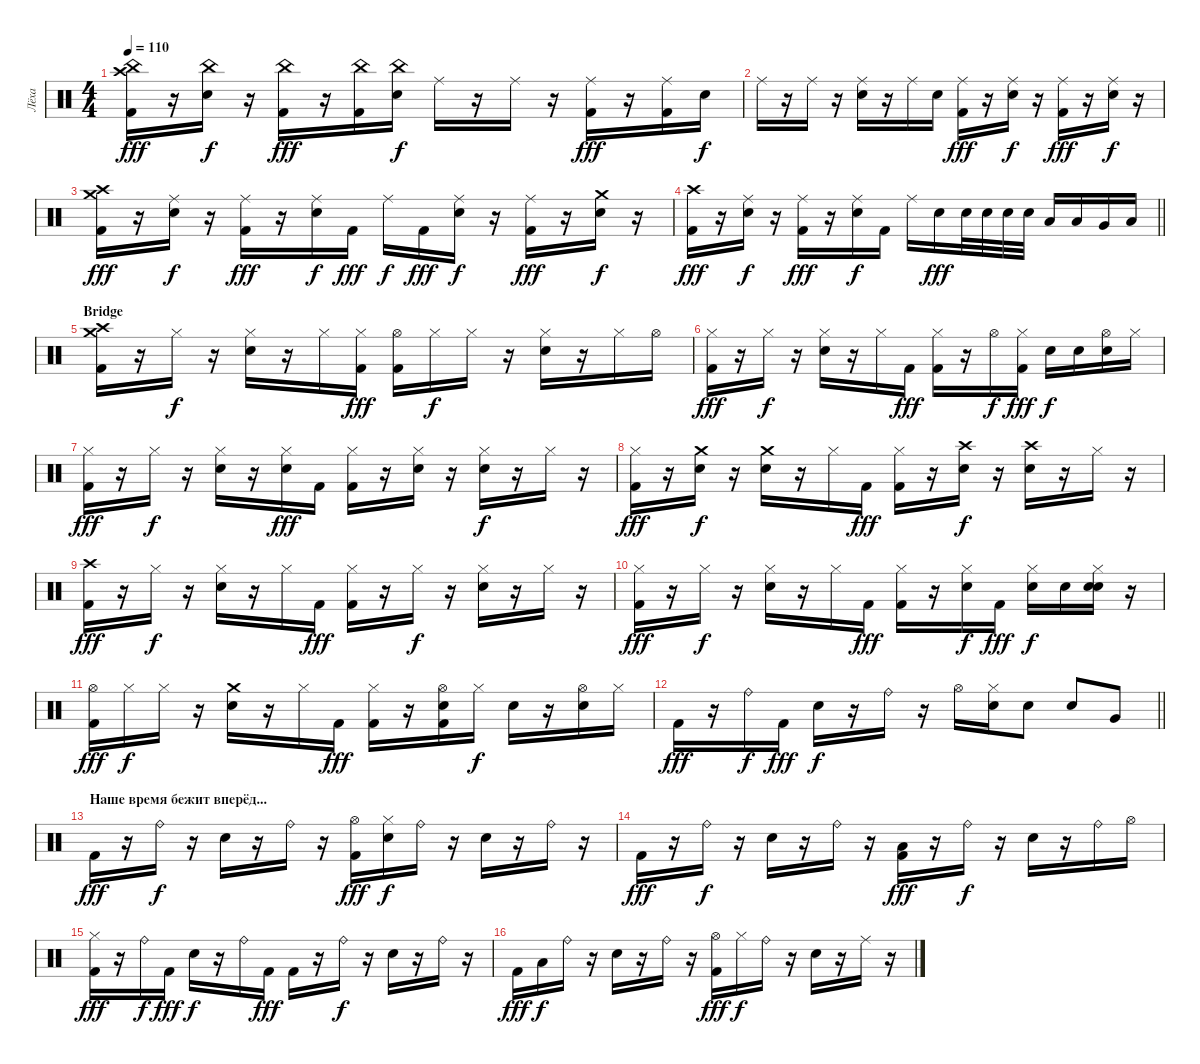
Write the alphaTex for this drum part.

\track ("Лёха" "Лёха") {instrument percussion}
\staff {score}
\articulation defaults
\ts (4 4)
\tempo 110
\clef neutral
\ks c
("China (hit)" "Crash high (hit)" "Kick (hit) 2").16{dy fff} r.16 ("China (hit)" "Electric Snare (hit)").16{dy f} r.16 ("China (hit)" "Kick (hit) 2").16{dy fff} r.16 ("China (hit)" "Kick (hit) 2").16 ("China (hit)" "Electric Snare (hit)").16{dy f} "Ride (middle)".16 r.16 "Ride (middle)".16 r.16 ("Ride (middle)" "Kick (hit) 2").16{dy fff} r.16 ("Ride (middle)" "Kick (hit) 2").16 "Electric Snare (hit)".16{dy f} |
"Ride (middle)".16 r.16 "Ride (middle)".16 r.16 ("Ride (middle)" "Electric Snare (hit)").16 r.16 "Ride (middle)".16 "Electric Snare (hit)".16 ("Ride (middle)" "Kick (hit) 2").16{dy fff} r.16 ("Ride (middle)" "Electric Snare (hit)").16{dy f} r.16 ("Ride (middle)" "Kick (hit) 2").16{dy fff} r.16 ("Ride (middle)" "Electric Snare (hit)").16{dy f} r.16 |
("Crash high (hit)" "Crash medium (hit)" "Kick (hit) 2").16{dy fff} r.16 ("Ride (middle)" "Electric Snare (hit)").16{dy f} r.16 ("Ride (middle)" "Kick (hit) 2").16{dy fff} r.16 ("Ride (middle)" "Electric Snare (hit)").16{dy f} "Kick (hit) 2".16{dy fff} "Ride (middle)".16{dy f} "Kick (hit) 2".16{dy fff} ("Ride (middle)" "Electric Snare (hit)").16{dy f} r.16 ("Ride (middle)" "Kick (hit) 2").16{dy fff} r.16 ("Crash medium (hit)" "Electric Snare (hit)").16{dy f} r.16 |
\barLineRight lightlight
("Crash high (hit)" "Kick (hit) 2").16{dy fff} r.16 ("Ride (middle)" "Electric Snare (hit)").16{dy f} r.16 ("Ride (middle)" "Kick (hit) 2").16{dy fff} r.16 ("Ride (middle)" "Electric Snare (hit)").16{dy f} "Kick (hit) 2".16 "Ride (middle)".16 "Electric Snare (hit)".16{dy fff} "Electric Snare (hit)".32 "Electric Snare (hit)".32 "Electric Snare (hit)".32 "Electric Snare (hit)".32 "Low Tom (hit)".16 "Low Tom (hit)".16 "Very Low Tom (hit)".16 "Low Floor Tom (hit)".16 |
\section ("" "Bridge")
("Crash medium (hit)" "Crash high (hit)" "Kick (hit) 2").16 r.16 "Hi-Hat (closed)".16{dy f} r.16 ("Hi-Hat (closed)" "Electric Snare (hit)").16 r.16 "Hi-Hat (closed)".16 ("Hi-Hat (closed)" "Kick (hit) 2").16{dy fff} ("Hi-Hat (open)" "Kick (hit) 2").16 "Hi-Hat (closed)".16{dy f} "Hi-Hat (closed)".16 r.16 ("Hi-Hat (closed)" "Electric Snare (hit)").16 r.16 "Hi-Hat (closed)".16 "Hi-Hat (open)".16 |
("Hi-Hat (closed)" "Kick (hit) 2").16{dy fff} r.16 "Hi-Hat (closed)".16{dy f} r.16 ("Hi-Hat (closed)" "Electric Snare (hit)").16 r.16 "Hi-Hat (closed)".16 "Kick (hit) 2".16{dy fff} ("Hi-Hat (closed)" "Kick (hit) 2").16 r.16 "Hi-Hat (open)".16{dy f} ("Hi-Hat (closed)" "Kick (hit) 2").16{dy fff} "Electric Snare (hit)".16{dy f} "Electric Snare (hit)".16 ("Hi-Hat (open)" "Electric Snare (hit)").16 "Hi-Hat (closed)".16 |
("Hi-Hat (closed)" "Kick (hit) 2").16{dy fff} r.16 "Hi-Hat (closed)".16{dy f} r.16 ("Hi-Hat (closed)" "Electric Snare (hit)").16 r.16 ("Hi-Hat (closed)" "Hand Clap (hit)").16{dy fff} "Kick (hit) 2".16 ("Hi-Hat (closed)" "Kick (hit) 2").16 r.16 ("Hi-Hat (closed)" "Hand Clap (hit)").16 r.16 ("Hi-Hat (closed)" "Electric Snare (hit)").16{dy f} r.16 "Hi-Hat (closed)".16 r.16 |
("Hi-Hat (closed)" "Kick (hit) 2").16{dy fff} r.16 ("Crash medium (hit)" "Electric Snare (hit)").16{dy f} r.16 ("Crash medium (hit)" "Electric Snare (hit)").16 r.16 "Hi-Hat (closed)".16 "Kick (hit) 2".16{dy fff} ("Hi-Hat (closed)" "Kick (hit) 2").16 r.16 ("Crash high (hit)" "Electric Snare (hit)").16{dy f} r.16 ("Crash high (hit)" "Electric Snare (hit)").16 r.16 "Hi-Hat (closed)".16 r.16 |
("Crash high (hit)" "Kick (hit) 2").16{dy fff} r.16 "Hi-Hat (closed)".16{dy f} r.16 ("Hi-Hat (closed)" "Electric Snare (hit)").16 r.16 "Hi-Hat (closed)".16 "Kick (hit) 2".16{dy fff} ("Hi-Hat (closed)" "Kick (hit) 2").16 r.16 "Hi-Hat (closed)".16{dy f} r.16 ("Hi-Hat (closed)" "Electric Snare (hit)").16 r.16 "Hi-Hat (closed)".16 r.16 |
("Hi-Hat (closed)" "Kick (hit) 2").16{dy fff} r.16 "Hi-Hat (closed)".16{dy f} r.16 ("Hi-Hat (closed)" "Electric Snare (hit)").16 r.16 "Hi-Hat (closed)".16 "Kick (hit) 2".16{dy fff} ("Hi-Hat (closed)" "Kick (hit) 2").16 r.16 ("Hi-Hat (closed)" "Hand Clap (hit)").16{dy f} "Kick (hit) 2".16{dy fff} ("Hi-Hat (closed)" "Electric Snare (hit)").16{dy f} "Electric Snare (hit)".16 ("Hi-Hat (closed)" "Hand Clap (hit)" "Electric Snare (hit)").16 r.16 |
("Hi-Hat (open)" "Kick (hit) 2").16{dy fff} "Hi-Hat (closed)".16{dy f} "Hi-Hat (closed)".16 r.16 ("Crash medium (hit)" "Electric Snare (hit)").16 r.16 "Hi-Hat (closed)".16 "Kick (hit) 2".16{dy fff} ("Hi-Hat (closed)" "Kick (hit) 2").16 r.16 ("Hi-Hat (open)" "Hand Clap (hit)" "Kick (hit) 2").16 "Hi-Hat (closed)".16{dy f} "Electric Snare (hit)".16 r.16 ("Hi-Hat (open)" "Hand Clap (hit)").16 "Hi-Hat (closed)".16 |
\barLineRight lightlight "Kick (hit) 2".16{dy fff}
r.16 "Ride (bell)".16{dy f} "Kick (hit) 2".16{dy fff} "Electric Snare (hit)".16{dy f} r.16 "Ride (bell)".16 r.16 "Hi-Hat (open)".16 ("Hi-Hat (closed)" "Electric Snare (hit)").16 "Electric Snare (hit)".8 "Electric Snare (hit)".8 "Very Low Tom (hit)".8 |
\section ("" "Наше время бежит вперёд...")
"Kick (hit) 2".16{dy fff} r.16 "Ride (bell)".16{dy f} r.16 "Electric Snare (hit)".16 r.16 "Ride (bell)".16 r.16 ("Hi-Hat (open)" "Kick (hit) 2").16{dy fff} ("Hi-Hat (closed)" "Electric Snare (hit)").16{dy f} "Ride (bell)".16 r.16 "Electric Snare (hit)".16 r.16 "Ride (bell)".16 r.16 |
"Kick (hit) 2".16{dy fff} r.16 "Ride (bell)".16{dy f} r.16 "Electric Snare (hit)".16 r.16 "Ride (bell)".16 r.16 ("Low Tom (hit)" "Kick (hit) 2").16{dy fff} r.16 "Ride (bell)".16{dy f} r.16 "Electric Snare (hit)".16 r.16 "Ride (bell)".16 "Hi-Hat (open)".16 |
("Hi-Hat (closed)" "Kick (hit) 2").16{dy fff} r.16 "Ride (bell)".16{dy f} "Kick (hit) 2".16{dy fff} "Electric Snare (hit)".16{dy f} r.16 "Ride (bell)".16 "Kick (hit) 2".16{dy fff} "Kick (hit) 2".16 r.16 "Ride (bell)".16{dy f} r.16 "Electric Snare (hit)".16 r.16 "Ride (bell)".16 r.16 |
"Kick (hit) 2".16{dy fff} "Low Tom (hit)".16{dy f} "Ride (bell)".16 r.16 "Electric Snare (hit)".16 r.16 "Ride (bell)".16 r.16 ("Hi-Hat (open)" "Kick (hit) 2").16{dy fff} "Hi-Hat (closed)".16{dy f} "Ride (bell)".16 r.16 "Electric Snare (hit)".16 r.16 "Ride (middle)".16 r.16
